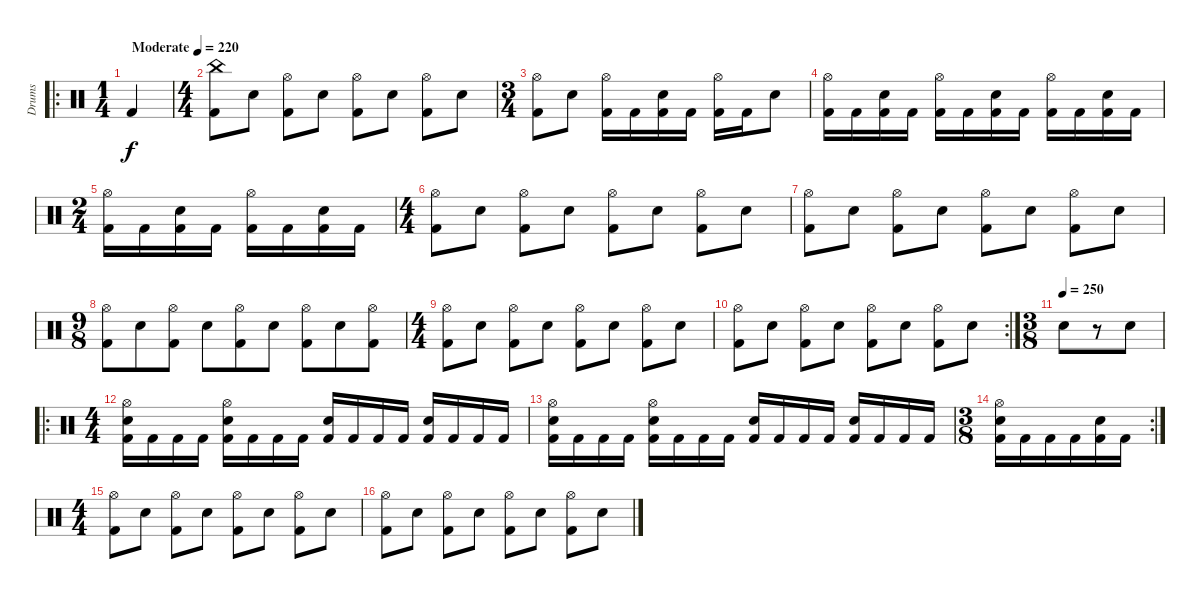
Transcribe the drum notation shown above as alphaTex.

\track ("Drums" "Drums") {instrument percussion}
\staff {score}
\articulation defaults
\ro
\ts (1 4)
\tempo (220 "Moderate")
\clef neutral
\ks c "Kick (hit) 2".4{dy f}
|
\ts (4 4)
("China (hit)" "Kick (hit) 2").8 "Electric Snare (hit)".8 ("Hi-Hat (open)" "Kick (hit) 2").8 "Electric Snare (hit)".8 ("Hi-Hat (open)" "Kick (hit) 2").8 "Electric Snare (hit)".8 ("Hi-Hat (open)" "Kick (hit) 2").8 "Electric Snare (hit)".8 |
\ts (3 4)
("Hi-Hat (open)" "Kick (hit) 2").8 "Electric Snare (hit)".8 ("Hi-Hat (open)" "Kick (hit) 2").16 "Kick (hit) 2".16 ("Electric Snare (hit)" "Kick (hit) 2").16 "Kick (hit) 2".16 ("Hi-Hat (open)" "Kick (hit) 2").16 "Kick (hit) 2".16 "Electric Snare (hit)".8 |
("Hi-Hat (open)" "Kick (hit) 2").16 "Kick (hit) 2".16 ("Electric Snare (hit)" "Kick (hit) 2").16 "Kick (hit) 2".16 ("Hi-Hat (open)" "Kick (hit) 2").16 "Kick (hit) 2".16 ("Electric Snare (hit)" "Kick (hit) 2").16 "Kick (hit) 2".16 ("Hi-Hat (open)" "Kick (hit) 2").16 "Kick (hit) 2".16 ("Electric Snare (hit)" "Kick (hit) 2").16 "Kick (hit) 2".16 |
\ts (2 4)
("Hi-Hat (open)" "Kick (hit) 2").16 "Kick (hit) 2".16 ("Electric Snare (hit)" "Kick (hit) 2").16 "Kick (hit) 2".16 ("Hi-Hat (open)" "Kick (hit) 2").16 "Kick (hit) 2".16 ("Electric Snare (hit)" "Kick (hit) 2").16 "Kick (hit) 2".16 |
\ts (4 4)
("Hi-Hat (open)" "Kick (hit) 2").8 "Electric Snare (hit)".8 ("Hi-Hat (open)" "Kick (hit) 2").8 "Electric Snare (hit)".8 ("Hi-Hat (open)" "Kick (hit) 2").8 "Electric Snare (hit)".8 ("Hi-Hat (open)" "Kick (hit) 2").8 "Electric Snare (hit)".8 |
("Hi-Hat (open)" "Kick (hit) 2").8 "Electric Snare (hit)".8 ("Hi-Hat (open)" "Kick (hit) 2").8 "Electric Snare (hit)".8 ("Hi-Hat (open)" "Kick (hit) 2").8 "Electric Snare (hit)".8 ("Hi-Hat (open)" "Kick (hit) 2").8 "Electric Snare (hit)".8 |
\ts (9 8)
("Hi-Hat (open)" "Kick (hit) 2").8 "Electric Snare (hit)".8 ("Hi-Hat (open)" "Kick (hit) 2").8 "Electric Snare (hit)".8 ("Hi-Hat (open)" "Kick (hit) 2").8 "Electric Snare (hit)".8 ("Hi-Hat (open)" "Kick (hit) 2").8 "Electric Snare (hit)".8 ("Hi-Hat (open)" "Kick (hit) 2").8 |
\ts (4 4)
("Hi-Hat (open)" "Kick (hit) 2").8 "Electric Snare (hit)".8 ("Hi-Hat (open)" "Kick (hit) 2").8 "Electric Snare (hit)".8 ("Hi-Hat (open)" "Kick (hit) 2").8 "Electric Snare (hit)".8 ("Hi-Hat (open)" "Kick (hit) 2").8 "Electric Snare (hit)".8 |
\rc 2
("Hi-Hat (open)" "Kick (hit) 2").8 "Electric Snare (hit)".8 ("Hi-Hat (open)" "Kick (hit) 2").8 "Electric Snare (hit)".8 ("Hi-Hat (open)" "Kick (hit) 2").8 "Electric Snare (hit)".8 ("Hi-Hat (open)" "Kick (hit) 2").8 "Electric Snare (hit)".8 |
\ts (3 8)
\tempo (250)
"Electric Snare (hit)".8 r.8 "Electric Snare (hit)".8 |
\ro
\ts (4 4)
("Hi-Hat (open)" "Electric Snare (hit)" "Kick (hit) 2").16 "Kick (hit) 2".16 "Kick (hit) 2".16 "Kick (hit) 2".16 ("Hi-Hat (open)" "Electric Snare (hit)" "Kick (hit) 2").16 "Kick (hit) 2".16 "Kick (hit) 2".16 "Kick (hit) 2".16 ("Electric Snare (hit)" "Kick (hit) 2").16 "Kick (hit) 2".16 "Kick (hit) 2".16 "Kick (hit) 2".16 ("Electric Snare (hit)" "Kick (hit) 2").16 "Kick (hit) 2".16 "Kick (hit) 2".16 "Kick (hit) 2".16 |
("Hi-Hat (open)" "Electric Snare (hit)" "Kick (hit) 2").16 "Kick (hit) 2".16 "Kick (hit) 2".16 "Kick (hit) 2".16 ("Hi-Hat (open)" "Electric Snare (hit)" "Kick (hit) 2").16 "Kick (hit) 2".16 "Kick (hit) 2".16 "Kick (hit) 2".16 ("Electric Snare (hit)" "Kick (hit) 2").16 "Kick (hit) 2".16 "Kick (hit) 2".16 "Kick (hit) 2".16 ("Electric Snare (hit)" "Kick (hit) 2").16 "Kick (hit) 2".16 "Kick (hit) 2".16 "Kick (hit) 2".16 |
\rc 2
\ts (3 8)
("Hi-Hat (open)" "Electric Snare (hit)" "Kick (hit) 2").16 "Kick (hit) 2".16 "Kick (hit) 2".16 "Kick (hit) 2".16 ("Electric Snare (hit)" "Kick (hit) 2").16 "Kick (hit) 2".16 |
\ts (4 4)
("Hi-Hat (open)" "Kick (hit) 2").8 "Electric Snare (hit)".8 ("Hi-Hat (open)" "Kick (hit) 2").8 "Electric Snare (hit)".8 ("Hi-Hat (open)" "Kick (hit) 2").8 "Electric Snare (hit)".8 ("Hi-Hat (open)" "Kick (hit) 2").8 "Electric Snare (hit)".8 |
("Hi-Hat (open)" "Kick (hit) 2").8 "Electric Snare (hit)".8 ("Hi-Hat (open)" "Kick (hit) 2").8 "Electric Snare (hit)".8 ("Hi-Hat (open)" "Kick (hit) 2").8 "Electric Snare (hit)".8 ("Hi-Hat (open)" "Kick (hit) 2").8 "Electric Snare (hit)".8
